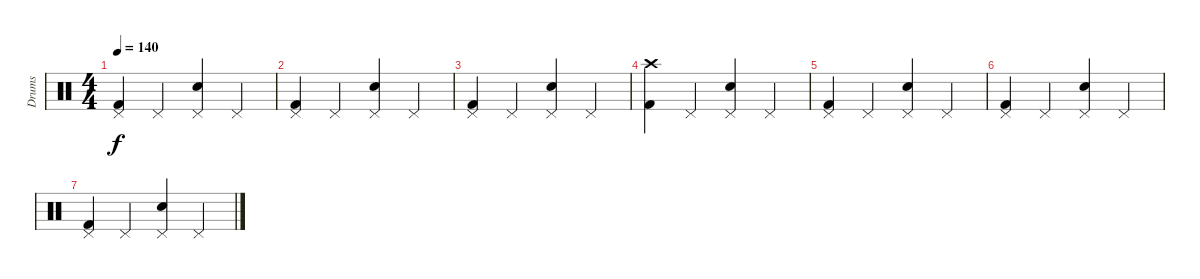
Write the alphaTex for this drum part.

\track ("Drums" "Drums") {instrument percussion}
\staff {score}
\articulation defaults
\ts (4 4)
\tempo 140
\clef neutral
\ks c
("Pedal Hi-Hat (hit)" "Kick (hit) 2").4{dy f} "Pedal Hi-Hat (hit)".4 ("Pedal Hi-Hat (hit)" "Snare (hit) 2").4 "Pedal Hi-Hat (hit)".4 |
("Pedal Hi-Hat (hit)" "Kick (hit) 2").4 "Pedal Hi-Hat (hit)".4 ("Pedal Hi-Hat (hit)" "Snare (hit) 2").4 "Pedal Hi-Hat (hit)".4 |
("Pedal Hi-Hat (hit)" "Kick (hit) 2").4 "Pedal Hi-Hat (hit)".4 ("Pedal Hi-Hat (hit)" "Snare (hit) 2").4 "Pedal Hi-Hat (hit)".4 |
("Crash high (hit)" "Kick (hit) 2").4 "Pedal Hi-Hat (hit)".4 ("Pedal Hi-Hat (hit)" "Snare (hit) 2").4 "Pedal Hi-Hat (hit)".4 |
("Pedal Hi-Hat (hit)" "Kick (hit) 2").4 "Pedal Hi-Hat (hit)".4 ("Pedal Hi-Hat (hit)" "Snare (hit) 2").4 "Pedal Hi-Hat (hit)".4 |
("Pedal Hi-Hat (hit)" "Kick (hit) 2").4 "Pedal Hi-Hat (hit)".4 ("Pedal Hi-Hat (hit)" "Snare (hit) 2").4 "Pedal Hi-Hat (hit)".4 |
("Pedal Hi-Hat (hit)" "Kick (hit) 2").4 "Pedal Hi-Hat (hit)".4 ("Pedal Hi-Hat (hit)" "Snare (hit) 2").4 "Pedal Hi-Hat (hit)".4
